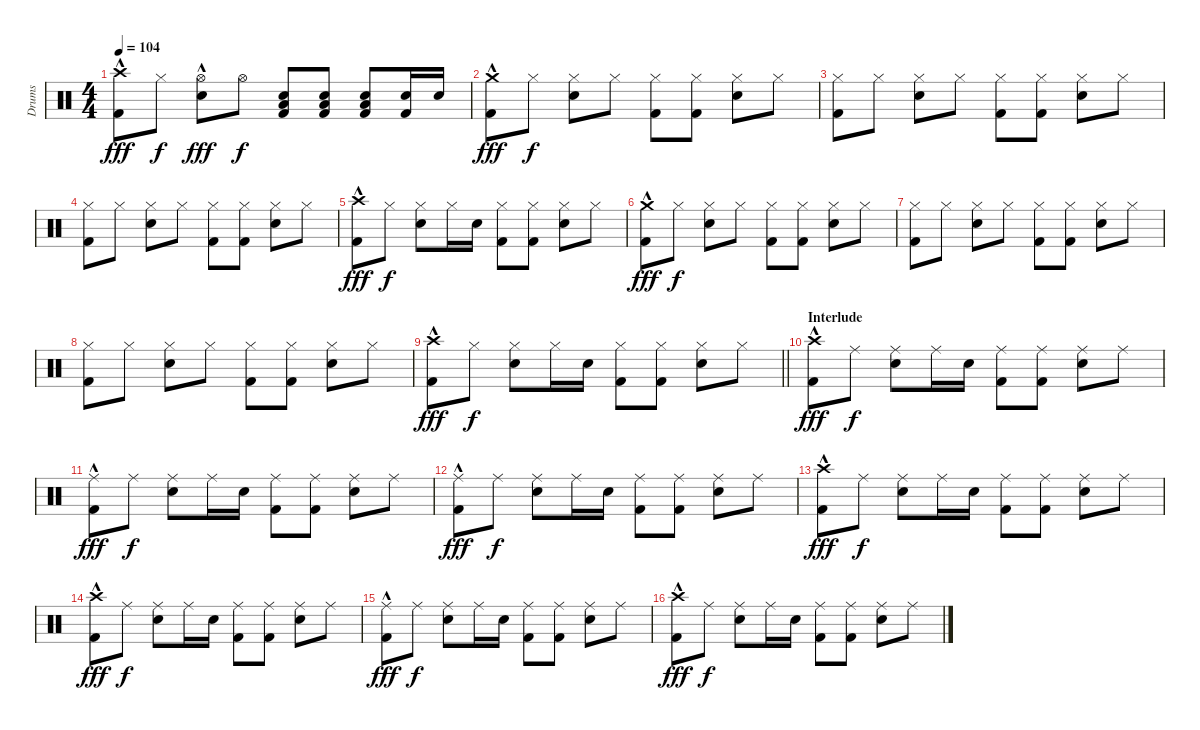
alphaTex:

\track ("Drums" "Drums") {instrument percussion}
\staff {score}
\articulation defaults
\ts (4 4)
\tempo 104
\clef neutral
\ks c
("Crash high (hit)"{hac} "Kick (hit) 2").8{dy fff} "Hi-Hat (closed)".8{dy f} ("Hi-Hat (open)"{hac} "Snare (hit) 2").8{dy fff} "Hi-Hat (open)".8{dy f} ("Kick (hit) 2" "Low Floor Tom (hit)" "Snare (hit) 2").8 ("Kick (hit) 2" "Low Floor Tom (hit)" "Snare (hit) 2").8 ("Kick (hit) 2" "Low Floor Tom (hit)" "Snare (hit) 2").8 ("Kick (hit) 2" "Snare (hit) 2").16 "Snare (hit) 2".16 |
("Crash medium (hit)"{hac} "Kick (hit) 2").8{dy fff} "Hi-Hat (closed)".8{dy f} ("Hi-Hat (closed)" "Snare (hit) 2").8 "Hi-Hat (closed)".8 ("Hi-Hat (closed)" "Kick (hit) 2").8 ("Hi-Hat (closed)" "Kick (hit) 2").8 ("Hi-Hat (closed)" "Snare (hit) 2").8 "Hi-Hat (closed)".8 |
("Hi-Hat (closed)" "Kick (hit) 2").8 "Hi-Hat (closed)".8 ("Hi-Hat (closed)" "Snare (hit) 2").8 "Hi-Hat (closed)".8 ("Hi-Hat (closed)" "Kick (hit) 2").8 ("Hi-Hat (closed)" "Kick (hit) 2").8 ("Hi-Hat (closed)" "Snare (hit) 2").8 "Hi-Hat (closed)".8 |
("Hi-Hat (closed)" "Kick (hit) 2").8 "Hi-Hat (closed)".8 ("Hi-Hat (closed)" "Snare (hit) 2").8 "Hi-Hat (closed)".8 ("Hi-Hat (closed)" "Kick (hit) 2").8 ("Hi-Hat (closed)" "Kick (hit) 2").8 ("Hi-Hat (closed)" "Snare (hit) 2").8 "Hi-Hat (closed)".8 |
("Crash high (hit)"{hac} "Kick (hit) 2").8{dy fff} "Hi-Hat (closed)".8{dy f} ("Hi-Hat (closed)" "Snare (hit) 2").8 "Hi-Hat (closed)".16 "Snare (hit) 2".16 ("Hi-Hat (closed)" "Kick (hit) 2").8 ("Hi-Hat (closed)" "Kick (hit) 2").8 ("Hi-Hat (closed)" "Snare (hit) 2").8 "Hi-Hat (closed)".8 |
("Crash medium (hit)"{hac} "Kick (hit) 2").8{dy fff} "Hi-Hat (closed)".8{dy f} ("Hi-Hat (closed)" "Snare (hit) 2").8 "Hi-Hat (closed)".8 ("Hi-Hat (closed)" "Kick (hit) 2").8 ("Hi-Hat (closed)" "Kick (hit) 2").8 ("Hi-Hat (closed)" "Snare (hit) 2").8 "Hi-Hat (closed)".8 |
("Hi-Hat (closed)" "Kick (hit) 2").8 "Hi-Hat (closed)".8 ("Hi-Hat (closed)" "Snare (hit) 2").8 "Hi-Hat (closed)".8 ("Hi-Hat (closed)" "Kick (hit) 2").8 ("Hi-Hat (closed)" "Kick (hit) 2").8 ("Hi-Hat (closed)" "Snare (hit) 2").8 "Hi-Hat (closed)".8 |
("Hi-Hat (closed)" "Kick (hit) 2").8 "Hi-Hat (closed)".8 ("Hi-Hat (closed)" "Snare (hit) 2").8 "Hi-Hat (closed)".8 ("Hi-Hat (closed)" "Kick (hit) 2").8 ("Hi-Hat (closed)" "Kick (hit) 2").8 ("Hi-Hat (closed)" "Snare (hit) 2").8 "Hi-Hat (closed)".8 |
\barLineRight lightlight
("Crash high (hit)"{hac} "Kick (hit) 2").8{dy fff} "Hi-Hat (closed)".8{dy f} ("Hi-Hat (closed)" "Snare (hit) 2").8 "Hi-Hat (closed)".16 "Snare (hit) 2".16 ("Hi-Hat (closed)" "Kick (hit) 2").8 ("Hi-Hat (closed)" "Kick (hit) 2").8 ("Hi-Hat (closed)" "Snare (hit) 2").8 "Hi-Hat (closed)".8 |
\section ("" "Interlude")
("Crash high (hit)"{hac} "Kick (hit) 2").8{dy fff} "Ride (middle)".8{dy f} ("Ride (middle)" "Snare (hit) 2").8 "Ride (middle)".16 "Snare (hit) 2".16 ("Ride (middle)" "Kick (hit) 2").8 ("Ride (middle)" "Kick (hit) 2").8 ("Ride (middle)" "Snare (hit) 2").8 "Ride (middle)".8 |
("Ride (middle)"{hac} "Kick (hit) 2").8{dy fff} "Ride (middle)".8{dy f} ("Ride (middle)" "Snare (hit) 2").8 "Ride (middle)".16 "Snare (hit) 2".16 ("Ride (middle)" "Kick (hit) 2").8 ("Ride (middle)" "Kick (hit) 2").8 ("Ride (middle)" "Snare (hit) 2").8 "Ride (middle)".8 |
("Ride (middle)"{hac} "Kick (hit) 2").8{dy fff} "Ride (middle)".8{dy f} ("Ride (middle)" "Snare (hit) 2").8 "Ride (middle)".16 "Snare (hit) 2".16 ("Ride (middle)" "Kick (hit) 2").8 ("Ride (middle)" "Kick (hit) 2").8 ("Ride (middle)" "Snare (hit) 2").8 "Ride (middle)".8 |
("Crash high (hit)"{hac} "Kick (hit) 2").8{dy fff} "Ride (middle)".8{dy f} ("Ride (middle)" "Snare (hit) 2").8 "Ride (middle)".16 "Snare (hit) 2".16 ("Ride (middle)" "Kick (hit) 2").8 ("Ride (middle)" "Kick (hit) 2").8 ("Ride (middle)" "Snare (hit) 2").8 "Ride (middle)".8 |
("Crash high (hit)"{hac} "Kick (hit) 2").8{dy fff} "Ride (middle)".8{dy f} ("Ride (middle)" "Snare (hit) 2").8 "Ride (middle)".16 "Snare (hit) 2".16 ("Ride (middle)" "Kick (hit) 2").8 ("Ride (middle)" "Kick (hit) 2").8 ("Ride (middle)" "Snare (hit) 2").8 "Ride (middle)".8 |
("Ride (middle)"{hac} "Kick (hit) 2").8{dy fff} "Ride (middle)".8{dy f} ("Ride (middle)" "Snare (hit) 2").8 "Ride (middle)".16 "Snare (hit) 2".16 ("Ride (middle)" "Kick (hit) 2").8 ("Ride (middle)" "Kick (hit) 2").8 ("Ride (middle)" "Snare (hit) 2").8 "Ride (middle)".8 |
("Crash high (hit)"{hac} "Kick (hit) 2").8{dy fff} "Ride (middle)".8{dy f} ("Ride (middle)" "Snare (hit) 2").8 "Ride (middle)".16 "Snare (hit) 2".16 ("Ride (middle)" "Kick (hit) 2").8 ("Ride (middle)" "Kick (hit) 2").8 ("Ride (middle)" "Snare (hit) 2").8 "Ride (middle)".8
